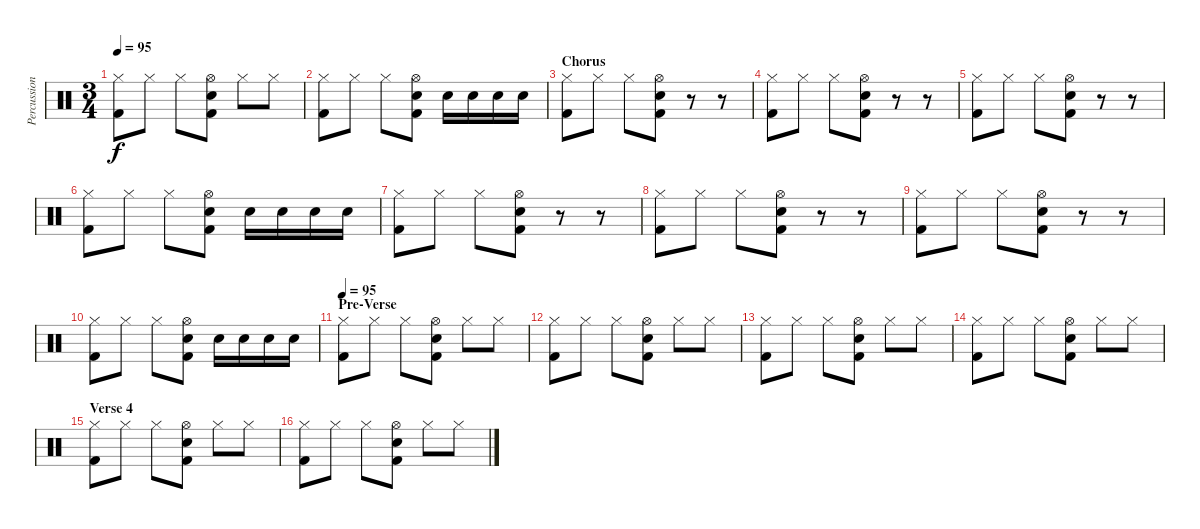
\track ("Percussion" "Percussion") {instrument percussion}
\staff {score}
\articulation defaults
\ts (3 4)
\tempo 95
\clef neutral
\ks c
("Hi-Hat (closed)" "Kick (hit) 2").8{dy f} "Hi-Hat (closed)".8 "Hi-Hat (closed)".8 ("Hi-Hat (open)" "Snare (hit) 2" "Kick (hit) 2").8 "Hi-Hat (closed)".8 "Hi-Hat (closed)".8 |
("Hi-Hat (closed)" "Kick (hit) 2").8 "Hi-Hat (closed)".8 "Hi-Hat (closed)".8 ("Hi-Hat (open)" "Snare (hit) 2" "Kick (hit) 2").8 "Snare (hit) 2".16 "Snare (hit) 2".16 "Snare (hit) 2".16 "Snare (hit) 2".16 |
\section ("" "Chorus")
("Hi-Hat (closed)" "Kick (hit) 2").8 "Hi-Hat (closed)".8 "Hi-Hat (closed)".8 ("Hi-Hat (open)" "Snare (hit) 2" "Kick (hit) 2").8 r.8 r.8 |
("Hi-Hat (closed)" "Kick (hit) 2").8 "Hi-Hat (closed)".8 "Hi-Hat (closed)".8 ("Hi-Hat (open)" "Snare (hit) 2" "Kick (hit) 2").8 r.8 r.8 |
("Hi-Hat (closed)" "Kick (hit) 2").8 "Hi-Hat (closed)".8 "Hi-Hat (closed)".8 ("Hi-Hat (open)" "Snare (hit) 2" "Kick (hit) 2").8 r.8 r.8 |
("Hi-Hat (closed)" "Kick (hit) 2").8 "Hi-Hat (closed)".8 "Hi-Hat (closed)".8 ("Hi-Hat (open)" "Snare (hit) 2" "Kick (hit) 2").8 "Snare (hit) 2".16 "Snare (hit) 2".16 "Snare (hit) 2".16 "Snare (hit) 2".16 |
("Hi-Hat (closed)" "Kick (hit) 2").8 "Hi-Hat (closed)".8 "Hi-Hat (closed)".8 ("Hi-Hat (open)" "Snare (hit) 2" "Kick (hit) 2").8 r.8 r.8 |
("Hi-Hat (closed)" "Kick (hit) 2").8 "Hi-Hat (closed)".8 "Hi-Hat (closed)".8 ("Hi-Hat (open)" "Snare (hit) 2" "Kick (hit) 2").8 r.8 r.8 |
("Hi-Hat (closed)" "Kick (hit) 2").8 "Hi-Hat (closed)".8 "Hi-Hat (closed)".8 ("Hi-Hat (open)" "Snare (hit) 2" "Kick (hit) 2").8 r.8 r.8 |
("Hi-Hat (closed)" "Kick (hit) 2").8 "Hi-Hat (closed)".8 "Hi-Hat (closed)".8 ("Hi-Hat (open)" "Snare (hit) 2" "Kick (hit) 2").8 "Snare (hit) 2".16 "Snare (hit) 2".16 "Snare (hit) 2".16 "Snare (hit) 2".16 |
\section ("" "Pre-Verse")
\tempo 95
("Hi-Hat (closed)" "Kick (hit) 2").8 "Hi-Hat (closed)".8 "Hi-Hat (closed)".8 ("Hi-Hat (open)" "Snare (hit) 2" "Kick (hit) 2").8 "Hi-Hat (closed)".8 "Hi-Hat (closed)".8 |
("Hi-Hat (closed)" "Kick (hit) 2").8 "Hi-Hat (closed)".8 "Hi-Hat (closed)".8 ("Hi-Hat (open)" "Snare (hit) 2" "Kick (hit) 2").8 "Hi-Hat (closed)".8 "Hi-Hat (closed)".8 |
("Hi-Hat (closed)" "Kick (hit) 2").8 "Hi-Hat (closed)".8 "Hi-Hat (closed)".8 ("Hi-Hat (open)" "Snare (hit) 2" "Kick (hit) 2").8 "Hi-Hat (closed)".8 "Hi-Hat (closed)".8 |
("Hi-Hat (closed)" "Kick (hit) 2").8 "Hi-Hat (closed)".8 "Hi-Hat (closed)".8 ("Hi-Hat (open)" "Snare (hit) 2" "Kick (hit) 2").8 "Hi-Hat (closed)".8 "Hi-Hat (closed)".8 |
\section ("" "Verse 4")
("Hi-Hat (closed)" "Kick (hit) 2").8 "Hi-Hat (closed)".8 "Hi-Hat (closed)".8 ("Hi-Hat (open)" "Snare (hit) 2" "Kick (hit) 2").8 "Hi-Hat (closed)".8 "Hi-Hat (closed)".8 |
("Hi-Hat (closed)" "Kick (hit) 2").8 "Hi-Hat (closed)".8 "Hi-Hat (closed)".8 ("Hi-Hat (open)" "Snare (hit) 2" "Kick (hit) 2").8 "Hi-Hat (closed)".8 "Hi-Hat (closed)".8
